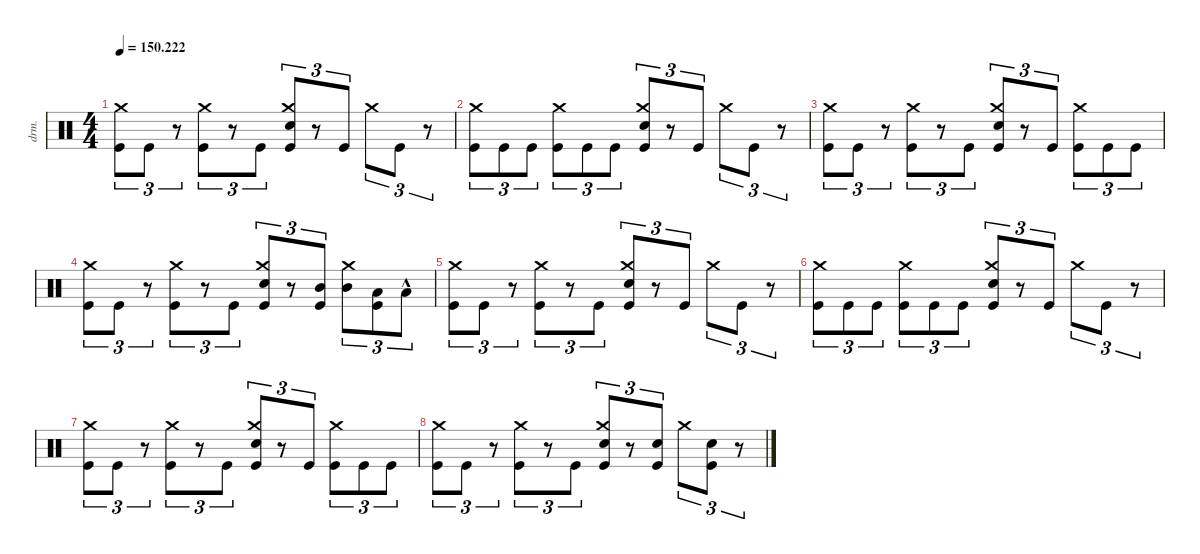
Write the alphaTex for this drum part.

\defaultSystemsLayout 4
\hideDynamics
\bracketExtendMode nobrackets
\otherSystemsTrackNameOrientation horizontal
\track ("Drumkit" "drm.") {instrument percussion}
\staff {score}
\articulation defaults
\ts (4 4)
\tempo
150.222
\accidentals auto
\clef neutral
\ottava regular
\simile none
\ks c
("Kick (hit)" "Crash medium (hit)").8{tu (3 2) dy mf} "Kick (hit)".8{tu (3 2)} r.8{tu (3 2)} ("Kick (hit)" "Crash medium (hit)").8{tu (3 2)} r.8{tu (3 2)} "Kick (hit)".8{tu (3 2)} ("Kick (hit)" "Snare (hit) 2" "Crash medium (hit)").8{tu (3 2)} r.8{tu (3 2)} "Kick (hit)".8{tu (3 2)} "Crash medium (hit)".8{tu (3 2)} "Kick (hit)".8{tu (3 2)} r.8{tu (3 2)} |
("Kick (hit)" "Crash medium (hit)").8{tu (3 2)} "Kick (hit)".8{tu (3 2)} "Kick (hit)".8{tu (3 2)} ("Kick (hit)" "Crash medium (hit)").8{tu (3 2)} "Kick (hit)".8{tu (3 2)} "Kick (hit)".8{tu (3 2)} ("Kick (hit)" "Snare (hit) 2" "Crash medium (hit)").8{tu (3 2)} r.8{tu (3 2)} "Kick (hit)".8{tu (3 2)} "Crash medium (hit)".8{tu (3 2)} "Kick (hit)".8{tu (3 2)} r.8{tu (3 2)} |
("Kick (hit)" "Crash medium (hit)").8{tu (3 2)} "Kick (hit)".8{tu (3 2)} r.8{tu (3 2)} ("Kick (hit)" "Crash medium (hit)").8{tu (3 2)} r.8{tu (3 2)} "Kick (hit)".8{tu (3 2)} ("Kick (hit)" "Snare (hit) 2" "Crash medium (hit)").8{tu (3 2)} r.8{tu (3 2)} "Kick (hit)".8{tu (3 2)} ("Crash medium (hit)" "Kick (hit)").8{tu (3 2)} "Kick (hit)".8{tu (3 2)} "Kick (hit)".8{tu (3 2)} |
("Kick (hit)" "Crash medium (hit)").8{tu (3 2)} "Kick (hit)".8{tu (3 2)} r.8{tu (3 2)} ("Kick (hit)" "Crash medium (hit)").8{tu (3 2)} r.8{tu (3 2)} "Kick (hit)".8{tu (3 2)} ("Kick (hit)" "Snare (hit) 2" "Crash medium (hit)").8{tu (3 2)} r.8{tu (3 2)} ("Kick (hit)" "Mid Tom (hit)").8{tu (3 2)} ("Crash medium (hit)" "Mid Tom (hit)").8{tu (3 2)} ("Kick (hit)" "Low Tom (hit)").8{tu (3 2)} "Low Tom (hit)"{hac}.8{tu (3 2)} |
("Kick (hit)" "Crash medium (hit)").8{tu (3 2)} "Kick (hit)".8{tu (3 2)} r.8{tu (3 2)} ("Kick (hit)" "Crash medium (hit)").8{tu (3 2)} r.8{tu (3 2)} "Kick (hit)".8{tu (3 2)} ("Kick (hit)" "Snare (hit) 2" "Crash medium (hit)").8{tu (3 2)} r.8{tu (3 2)} "Kick (hit)".8{tu (3 2)} "Crash medium (hit)".8{tu (3 2)} "Kick (hit)".8{tu (3 2)} r.8{tu (3 2)} |
("Kick (hit)" "Crash medium (hit)").8{tu (3 2)} "Kick (hit)".8{tu (3 2)} "Kick (hit)".8{tu (3 2)} ("Kick (hit)" "Crash medium (hit)").8{tu (3 2)} "Kick (hit)".8{tu (3 2)} "Kick (hit)".8{tu (3 2)} ("Kick (hit)" "Snare (hit) 2" "Crash medium (hit)").8{tu (3 2)} r.8{tu (3 2)} "Kick (hit)".8{tu (3 2)} "Crash medium (hit)".8{tu (3 2)} "Kick (hit)".8{tu (3 2)} r.8{tu (3 2)} |
("Kick (hit)" "Crash medium (hit)").8{tu (3 2)} "Kick (hit)".8{tu (3 2)} r.8{tu (3 2)} ("Kick (hit)" "Crash medium (hit)").8{tu (3 2)} r.8{tu (3 2)} "Kick (hit)".8{tu (3 2)} ("Kick (hit)" "Snare (hit) 2" "Crash medium (hit)").8{tu (3 2)} r.8{tu (3 2)} "Kick (hit)".8{tu (3 2)} ("Crash medium (hit)" "Kick (hit)").8{tu (3 2)} "Kick (hit)".8{tu (3 2)} "Kick (hit)".8{tu (3 2)} |
("Kick (hit)" "Crash medium (hit)").8{tu (3 2)} "Kick (hit)".8{tu (3 2)} r.8{tu (3 2)} ("Kick (hit)" "Crash medium (hit)").8{tu (3 2)} r.8{tu (3 2)} "Kick (hit)".8{tu (3 2)} ("Kick (hit)" "Snare (hit) 2" "Crash medium (hit)").8{tu (3 2)} r.8{tu (3 2)} ("Kick (hit)" "Snare (hit) 2").8{tu (3 2)} "Crash medium (hit)".8{tu (3 2)} ("Kick (hit)" "Snare (hit) 2").8{tu (3 2)} r.8{tu (3 2)}
